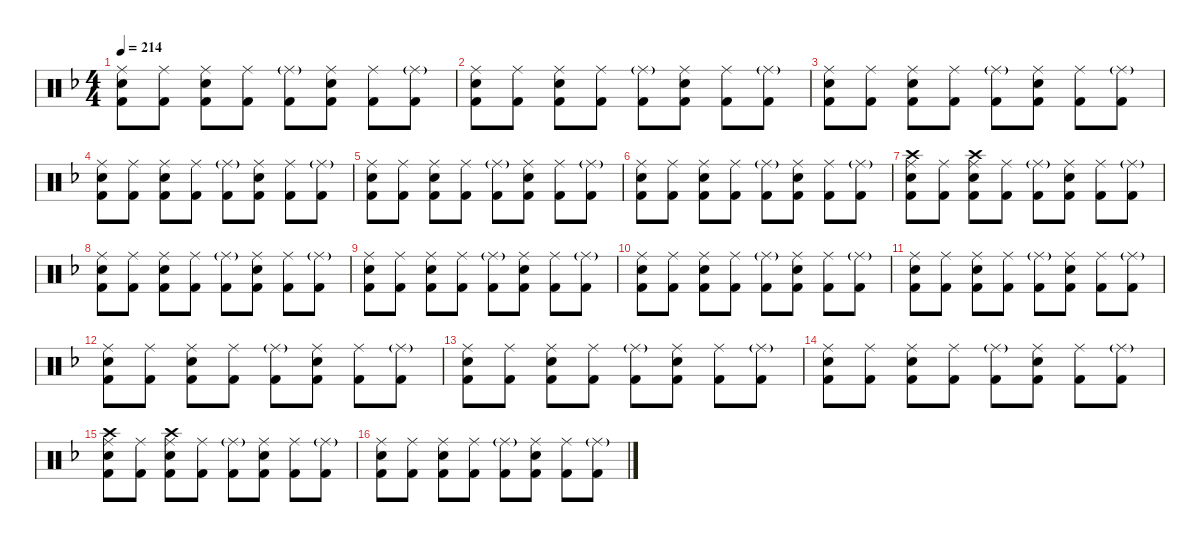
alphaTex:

\hideDynamics
\bracketExtendMode nobrackets
\singleTrackTrackNamePolicy hidden
\multiTrackTrackNamePolicy hidden
\firstSystemTrackNameMode fullname
\firstSystemTrackNameOrientation horizontal
\otherSystemsTrackNameOrientation horizontal
\track ("Drumkit" "Drums") {defaultSystemsLayout 4 instrument percussion}
\staff {score}
\articulation defaults
\ts (4 4)
\tempo 214
\clef neutral
\ks dminor
("Ride (middle)"{acc forcenatural} "Snare (hit) 2"{acc forcenatural} "Kick (hit) 2"{acc forcenatural}).8{dy mf beam Down} ("Ride (middle)"{acc forcenatural} "Kick (hit) 2"{acc forcenatural}).8{beam Down} ("Ride (middle)"{acc forcenatural} "Snare (hit) 2"{acc forcenatural} "Kick (hit) 2"{acc forcenatural}).8{beam Down} ("Ride (middle)"{acc forcenatural} "Kick (hit) 2"{acc forcenatural}).8{beam Down} ("Ride (middle)"{g acc forcenatural} "Kick (hit) 2"{acc forcenatural}).8{dy f beam Down} ("Ride (middle)"{acc forcenatural} "Snare (hit) 2"{acc forcenatural} "Kick (hit) 2"{acc forcenatural}).8{dy mf beam Down} ("Ride (middle)"{acc forcenatural} "Kick (hit) 2"{acc forcenatural}).8{beam Down} ("Ride (middle)"{g acc forcenatural} "Kick (hit) 2"{acc forcenatural}).8{dy f beam Down} |
("Ride (middle)"{acc forcenatural} "Snare (hit) 2"{acc forcenatural} "Kick (hit) 2"{acc forcenatural}).8{dy mf beam Down} ("Ride (middle)"{acc forcenatural} "Kick (hit) 2"{acc forcenatural}).8{beam Down} ("Ride (middle)"{acc forcenatural} "Snare (hit) 2"{acc forcenatural} "Kick (hit) 2"{acc forcenatural}).8{beam Down} ("Ride (middle)"{acc forcenatural} "Kick (hit) 2"{acc forcenatural}).8{beam Down} ("Ride (middle)"{g acc forcenatural} "Kick (hit) 2"{acc forcenatural}).8{dy f beam Down} ("Ride (middle)"{acc forcenatural} "Snare (hit) 2"{acc forcenatural} "Kick (hit) 2"{acc forcenatural}).8{dy mf beam Down} ("Ride (middle)"{acc forcenatural} "Kick (hit) 2"{acc forcenatural}).8{beam Down} ("Ride (middle)"{g acc forcenatural} "Kick (hit) 2"{acc forcenatural}).8{dy f beam Down} |
("Ride (middle)"{acc forcenatural} "Snare (hit) 2"{acc forcenatural} "Kick (hit) 2"{acc forcenatural}).8{dy mf beam Down} ("Ride (middle)"{acc forcenatural} "Kick (hit) 2"{acc forcenatural}).8{beam Down} ("Ride (middle)"{acc forcenatural} "Snare (hit) 2"{acc forcenatural} "Kick (hit) 2"{acc forcenatural}).8{beam Down} ("Ride (middle)"{acc forcenatural} "Kick (hit) 2"{acc forcenatural}).8{beam Down} ("Ride (middle)"{g acc forcenatural} "Kick (hit) 2"{acc forcenatural}).8{dy f beam Down} ("Ride (middle)"{acc forcenatural} "Snare (hit) 2"{acc forcenatural} "Kick (hit) 2"{acc forcenatural}).8{dy mf beam Down} ("Ride (middle)"{acc forcenatural} "Kick (hit) 2"{acc forcenatural}).8{beam Down} ("Ride (middle)"{g acc forcenatural} "Kick (hit) 2"{acc forcenatural}).8{dy f beam Down} |
("Ride (middle)"{acc forcenatural} "Snare (hit) 2"{acc forcenatural} "Kick (hit) 2"{acc forcenatural}).8{dy mf beam Down} ("Ride (middle)"{acc forcenatural} "Kick (hit) 2"{acc forcenatural}).8{beam Down} ("Ride (middle)"{acc forcenatural} "Snare (hit) 2"{acc forcenatural} "Kick (hit) 2"{acc forcenatural}).8{beam Down} ("Ride (middle)"{acc forcenatural} "Kick (hit) 2"{acc forcenatural}).8{beam Down} ("Ride (middle)"{g acc forcenatural} "Kick (hit) 2"{acc forcenatural}).8{dy f beam Down} ("Ride (middle)"{acc forcenatural} "Snare (hit) 2"{acc forcenatural} "Kick (hit) 2"{acc forcenatural}).8{dy mf beam Down} ("Ride (middle)"{acc forcenatural} "Kick (hit) 2"{acc forcenatural}).8{beam Down} ("Ride (middle)"{g acc forcenatural} "Kick (hit) 2"{acc forcenatural}).8{dy f beam Down} |
("Ride (middle)"{acc forcenatural} "Snare (hit) 2"{acc forcenatural} "Kick (hit) 2"{acc forcenatural}).8{dy mf beam Down} ("Ride (middle)"{acc forcenatural} "Kick (hit) 2"{acc forcenatural}).8{beam Down} ("Ride (middle)"{acc forcenatural} "Snare (hit) 2"{acc forcenatural} "Kick (hit) 2"{acc forcenatural}).8{beam Down} ("Ride (middle)"{acc forcenatural} "Kick (hit) 2"{acc forcenatural}).8{beam Down} ("Ride (middle)"{g acc forcenatural} "Kick (hit) 2"{acc forcenatural}).8{dy f beam Down} ("Ride (middle)"{acc forcenatural} "Snare (hit) 2"{acc forcenatural} "Kick (hit) 2"{acc forcenatural}).8{dy mf beam Down} ("Ride (middle)"{acc forcenatural} "Kick (hit) 2"{acc forcenatural}).8{beam Down} ("Ride (middle)"{g acc forcenatural} "Kick (hit) 2"{acc forcenatural}).8{dy f beam Down} |
("Ride (middle)"{acc forcenatural} "Snare (hit) 2"{acc forcenatural} "Kick (hit) 2"{acc forcenatural}).8{dy mf beam Down} ("Ride (middle)"{acc forcenatural} "Kick (hit) 2"{acc forcenatural}).8{beam Down} ("Ride (middle)"{acc forcenatural} "Snare (hit) 2"{acc forcenatural} "Kick (hit) 2"{acc forcenatural}).8{beam Down} ("Ride (middle)"{acc forcenatural} "Kick (hit) 2"{acc forcenatural}).8{beam Down} ("Ride (middle)"{g acc forcenatural} "Kick (hit) 2"{acc forcenatural}).8{dy f beam Down} ("Ride (middle)"{acc forcenatural} "Snare (hit) 2"{acc forcenatural} "Kick (hit) 2"{acc forcenatural}).8{dy mf beam Down} ("Ride (middle)"{acc forcenatural} "Kick (hit) 2"{acc forcenatural}).8{beam Down} ("Ride (middle)"{g acc forcenatural} "Kick (hit) 2"{acc forcenatural}).8{dy f beam Down} |
("Crash high (hit)"{acc forcenatural} "Ride (middle)"{acc forcenatural} "Snare (hit) 2"{acc forcenatural} "Kick (hit) 2"{acc forcenatural}).8{beam Down} ("Ride (middle)"{acc forcenatural} "Kick (hit) 2"{acc forcenatural}).8{dy mf beam Down} ("Crash high (hit)"{acc forcenatural} "Ride (middle)"{acc forcenatural} "Snare (hit) 2"{acc forcenatural} "Kick (hit) 2"{acc forcenatural}).8{dy f beam Down} ("Ride (middle)"{acc forcenatural} "Kick (hit) 2"{acc forcenatural}).8{dy mf beam Down} ("Ride (middle)"{g acc forcenatural} "Kick (hit) 2"{acc forcenatural}).8{dy f beam Down} ("Ride (middle)"{acc forcenatural} "Snare (hit) 2"{acc forcenatural} "Kick (hit) 2"{acc forcenatural}).8{dy mf beam Down} ("Ride (middle)"{acc forcenatural} "Kick (hit) 2"{acc forcenatural}).8{beam Down} ("Ride (middle)"{g acc forcenatural} "Kick (hit) 2"{acc forcenatural}).8{dy f beam Down} |
("Ride (middle)"{acc forcenatural} "Snare (hit) 2"{acc forcenatural} "Kick (hit) 2"{acc forcenatural}).8{dy mf beam Down} ("Ride (middle)"{acc forcenatural} "Kick (hit) 2"{acc forcenatural}).8{beam Down} ("Ride (middle)"{acc forcenatural} "Snare (hit) 2"{acc forcenatural} "Kick (hit) 2"{acc forcenatural}).8{beam Down} ("Ride (middle)"{acc forcenatural} "Kick (hit) 2"{acc forcenatural}).8{beam Down} ("Ride (middle)"{g acc forcenatural} "Kick (hit) 2"{acc forcenatural}).8{dy f beam Down} ("Ride (middle)"{acc forcenatural} "Snare (hit) 2"{acc forcenatural} "Kick (hit) 2"{acc forcenatural}).8{dy mf beam Down} ("Ride (middle)"{acc forcenatural} "Kick (hit) 2"{acc forcenatural}).8{beam Down} ("Ride (middle)"{g acc forcenatural} "Kick (hit) 2"{acc forcenatural}).8{dy f beam Down} |
("Ride (middle)"{acc forcenatural} "Snare (hit) 2"{acc forcenatural} "Kick (hit) 2"{acc forcenatural}).8{dy mf beam Down} ("Ride (middle)"{acc forcenatural} "Kick (hit) 2"{acc forcenatural}).8{beam Down} ("Ride (middle)"{acc forcenatural} "Snare (hit) 2"{acc forcenatural} "Kick (hit) 2"{acc forcenatural}).8{beam Down} ("Ride (middle)"{acc forcenatural} "Kick (hit) 2"{acc forcenatural}).8{beam Down} ("Ride (middle)"{g acc forcenatural} "Kick (hit) 2"{acc forcenatural}).8{dy f beam Down} ("Ride (middle)"{acc forcenatural} "Snare (hit) 2"{acc forcenatural} "Kick (hit) 2"{acc forcenatural}).8{dy mf beam Down} ("Ride (middle)"{acc forcenatural} "Kick (hit) 2"{acc forcenatural}).8{beam Down} ("Ride (middle)"{g acc forcenatural} "Kick (hit) 2"{acc forcenatural}).8{dy f beam Down} |
("Ride (middle)"{acc forcenatural} "Snare (hit) 2"{acc forcenatural} "Kick (hit) 2"{acc forcenatural}).8{dy mf beam Down} ("Ride (middle)"{acc forcenatural} "Kick (hit) 2"{acc forcenatural}).8{beam Down} ("Ride (middle)"{acc forcenatural} "Snare (hit) 2"{acc forcenatural} "Kick (hit) 2"{acc forcenatural}).8{beam Down} ("Ride (middle)"{acc forcenatural} "Kick (hit) 2"{acc forcenatural}).8{beam Down} ("Ride (middle)"{g acc forcenatural} "Kick (hit) 2"{acc forcenatural}).8{dy f beam Down} ("Ride (middle)"{acc forcenatural} "Snare (hit) 2"{acc forcenatural} "Kick (hit) 2"{acc forcenatural}).8{dy mf beam Down} ("Ride (middle)"{acc forcenatural} "Kick (hit) 2"{acc forcenatural}).8{beam Down} ("Ride (middle)"{g acc forcenatural} "Kick (hit) 2"{acc forcenatural}).8{dy f beam Down} |
("Ride (middle)"{acc forcenatural} "Snare (hit) 2"{acc forcenatural} "Kick (hit) 2"{acc forcenatural}).8{dy mf beam Down} ("Ride (middle)"{acc forcenatural} "Kick (hit) 2"{acc forcenatural}).8{beam Down} ("Ride (middle)"{acc forcenatural} "Snare (hit) 2"{acc forcenatural} "Kick (hit) 2"{acc forcenatural}).8{beam Down} ("Ride (middle)"{acc forcenatural} "Kick (hit) 2"{acc forcenatural}).8{beam Down} ("Ride (middle)"{g acc forcenatural} "Kick (hit) 2"{acc forcenatural}).8{dy f beam Down} ("Ride (middle)"{acc forcenatural} "Snare (hit) 2"{acc forcenatural} "Kick (hit) 2"{acc forcenatural}).8{dy mf beam Down} ("Ride (middle)"{acc forcenatural} "Kick (hit) 2"{acc forcenatural}).8{beam Down} ("Ride (middle)"{g acc forcenatural} "Kick (hit) 2"{acc forcenatural}).8{dy f beam Down} |
("Ride (middle)"{acc forcenatural} "Snare (hit) 2"{acc forcenatural} "Kick (hit) 2"{acc forcenatural}).8{dy mf beam Down} ("Ride (middle)"{acc forcenatural} "Kick (hit) 2"{acc forcenatural}).8{beam Down} ("Ride (middle)"{acc forcenatural} "Snare (hit) 2"{acc forcenatural} "Kick (hit) 2"{acc forcenatural}).8{beam Down} ("Ride (middle)"{acc forcenatural} "Kick (hit) 2"{acc forcenatural}).8{beam Down} ("Ride (middle)"{g acc forcenatural} "Kick (hit) 2"{acc forcenatural}).8{dy f beam Down} ("Ride (middle)"{acc forcenatural} "Snare (hit) 2"{acc forcenatural} "Kick (hit) 2"{acc forcenatural}).8{dy mf beam Down} ("Ride (middle)"{acc forcenatural} "Kick (hit) 2"{acc forcenatural}).8{beam Down} ("Ride (middle)"{g acc forcenatural} "Kick (hit) 2"{acc forcenatural}).8{dy f beam Down} |
("Ride (middle)"{acc forcenatural} "Snare (hit) 2"{acc forcenatural} "Kick (hit) 2"{acc forcenatural}).8{dy mf beam Down} ("Ride (middle)"{acc forcenatural} "Kick (hit) 2"{acc forcenatural}).8{beam Down} ("Ride (middle)"{acc forcenatural} "Snare (hit) 2"{acc forcenatural} "Kick (hit) 2"{acc forcenatural}).8{beam Down} ("Ride (middle)"{acc forcenatural} "Kick (hit) 2"{acc forcenatural}).8{beam Down} ("Ride (middle)"{g acc forcenatural} "Kick (hit) 2"{acc forcenatural}).8{dy f beam Down} ("Ride (middle)"{acc forcenatural} "Snare (hit) 2"{acc forcenatural} "Kick (hit) 2"{acc forcenatural}).8{dy mf beam Down} ("Ride (middle)"{acc forcenatural} "Kick (hit) 2"{acc forcenatural}).8{beam Down} ("Ride (middle)"{g acc forcenatural} "Kick (hit) 2"{acc forcenatural}).8{dy f beam Down} |
("Ride (middle)"{acc forcenatural} "Snare (hit) 2"{acc forcenatural} "Kick (hit) 2"{acc forcenatural}).8{dy mf beam Down} ("Ride (middle)"{acc forcenatural} "Kick (hit) 2"{acc forcenatural}).8{beam Down} ("Ride (middle)"{acc forcenatural} "Snare (hit) 2"{acc forcenatural} "Kick (hit) 2"{acc forcenatural}).8{beam Down} ("Ride (middle)"{acc forcenatural} "Kick (hit) 2"{acc forcenatural}).8{beam Down} ("Ride (middle)"{g acc forcenatural} "Kick (hit) 2"{acc forcenatural}).8{dy f beam Down} ("Ride (middle)"{acc forcenatural} "Snare (hit) 2"{acc forcenatural} "Kick (hit) 2"{acc forcenatural}).8{dy mf beam Down} ("Ride (middle)"{acc forcenatural} "Kick (hit) 2"{acc forcenatural}).8{beam Down} ("Ride (middle)"{g acc forcenatural} "Kick (hit) 2"{acc forcenatural}).8{dy f beam Down} |
("Crash high (hit)"{acc forcenatural} "Ride (middle)"{acc forcenatural} "Snare (hit) 2"{acc forcenatural} "Kick (hit) 2"{acc forcenatural}).8{beam Down} ("Ride (middle)"{acc forcenatural} "Kick (hit) 2"{acc forcenatural}).8{dy mf beam Down} ("Crash high (hit)"{acc forcenatural} "Ride (middle)"{acc forcenatural} "Snare (hit) 2"{acc forcenatural} "Kick (hit) 2"{acc forcenatural}).8{dy f beam Down} ("Ride (middle)"{acc forcenatural} "Kick (hit) 2"{acc forcenatural}).8{dy mf beam Down} ("Ride (middle)"{g acc forcenatural} "Kick (hit) 2"{acc forcenatural}).8{dy f beam Down} ("Ride (middle)"{acc forcenatural} "Snare (hit) 2"{acc forcenatural} "Kick (hit) 2"{acc forcenatural}).8{dy mf beam Down} ("Ride (middle)"{acc forcenatural} "Kick (hit) 2"{acc forcenatural}).8{beam Down} ("Ride (middle)"{g acc forcenatural} "Kick (hit) 2"{acc forcenatural}).8{dy f beam Down} |
("Ride (middle)"{acc forcenatural} "Snare (hit) 2"{acc forcenatural} "Kick (hit) 2"{acc forcenatural}).8{dy mf beam Down} ("Ride (middle)"{acc forcenatural} "Kick (hit) 2"{acc forcenatural}).8{beam Down} ("Ride (middle)"{acc forcenatural} "Snare (hit) 2"{acc forcenatural} "Kick (hit) 2"{acc forcenatural}).8{beam Down} ("Ride (middle)"{acc forcenatural} "Kick (hit) 2"{acc forcenatural}).8{beam Down} ("Ride (middle)"{g acc forcenatural} "Kick (hit) 2"{acc forcenatural}).8{dy f beam Down} ("Ride (middle)"{acc forcenatural} "Snare (hit) 2"{acc forcenatural} "Kick (hit) 2"{acc forcenatural}).8{dy mf beam Down} ("Ride (middle)"{acc forcenatural} "Kick (hit) 2"{acc forcenatural}).8{beam Down} ("Ride (middle)"{g acc forcenatural} "Kick (hit) 2"{acc forcenatural}).8{dy f beam Down}
